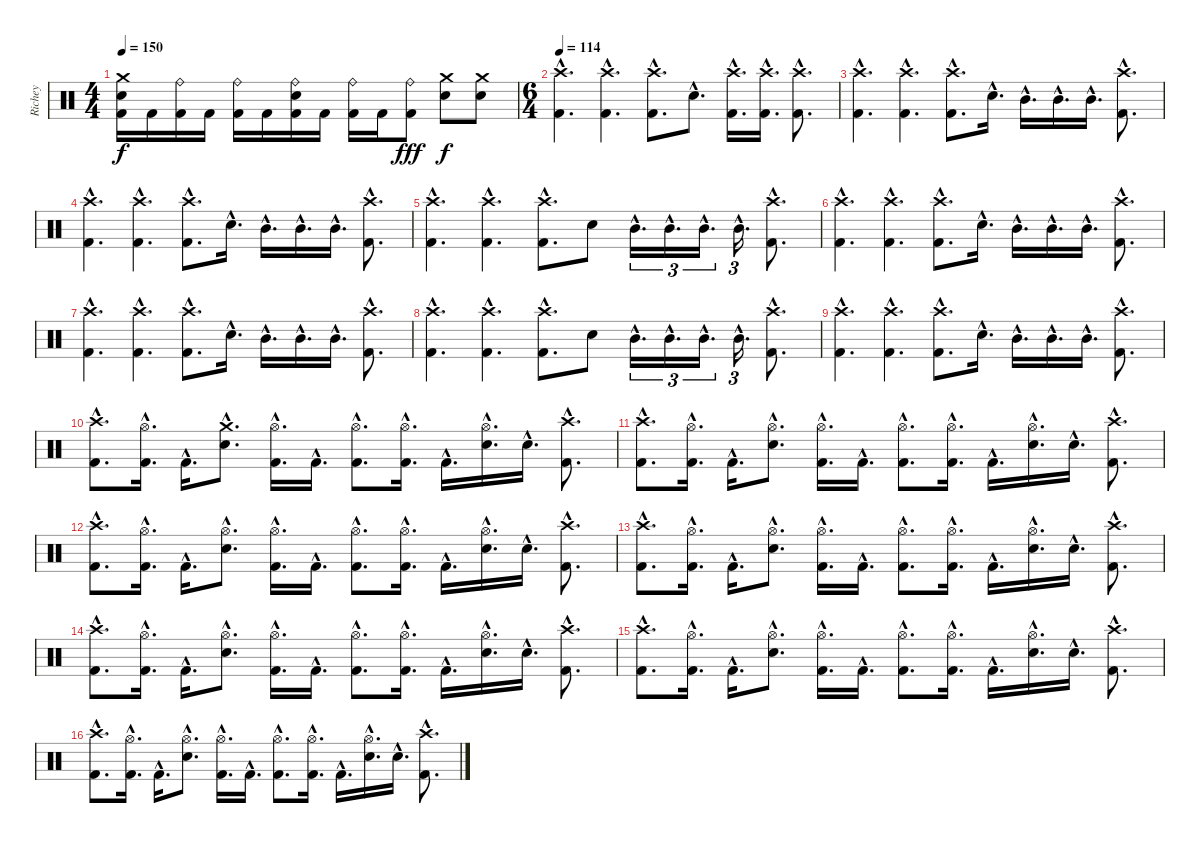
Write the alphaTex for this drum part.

\track ("Richey" "Richey") {instrument percussion}
\staff {score}
\articulation defaults
\ts (4 4)
\tempo 150
\clef neutral
\ks c
("Crash medium (hit)" "Snare (hit) 2" "Kick (hit) 2").16{dy f} "Kick (hit) 2".16 ("Ride (bell)" "Kick (hit) 2").16 "Kick (hit) 2".16 ("Ride (bell)" "Kick (hit) 2").16 "Kick (hit) 2".16 ("Ride (bell)" "Snare (hit) 2" "Kick (hit) 2").16 "Kick (hit) 2".16 ("Ride (bell)" "Kick (hit) 2").16 "Kick (hit) 2".16 ("Ride (bell)" "Kick (hit) 2").8{dy fff} ("Crash medium (hit)" "Snare (hit) 2").8{dy f} ("Crash medium (hit)" "Snare (hit) 2").8 |
\ts (6 4)
\tempo 114
("Crash high (hit)"{hac} "Kick (hit) 2"{hac}).4{d} ("Crash high (hit)"{hac} "Kick (hit) 2"{hac}).4{d} ("Crash high (hit)"{hac} "Kick (hit) 2"{hac}).8{d} "Snare (hit) 2"{hac}.8{d} ("Crash high (hit)"{hac} "Kick (hit) 2"{hac}).16{d} ("Crash high (hit)"{hac} "Kick (hit) 2"{hac}).16{d} ("Crash high (hit)"{hac} "Kick (hit) 2"{hac}).8{d} |
("Crash high (hit)"{hac} "Kick (hit) 2"{hac}).4{d} ("Crash high (hit)"{hac} "Kick (hit) 2"{hac}).4{d} ("Crash high (hit)"{hac} "Kick (hit) 2"{hac}).8{d} "Snare (hit) 2"{hac}.16{d} "Mid Tom (hit)"{hac}.16{d} "Mid Tom (hit)"{hac}.16{d} "Mid Tom (hit)"{hac}.16{d} ("Crash high (hit)"{hac} "Kick (hit) 2"{hac}).8{d} |
("Crash high (hit)"{hac} "Kick (hit) 2"{hac}).4{d} ("Crash high (hit)"{hac} "Kick (hit) 2"{hac}).4{d} ("Crash high (hit)"{hac} "Kick (hit) 2"{hac}).8{d} "Snare (hit) 2"{hac}.16{d} "Mid Tom (hit)"{hac}.16{d} "Mid Tom (hit)"{hac}.16{d} "Mid Tom (hit)"{hac}.16{d} ("Crash high (hit)"{hac} "Kick (hit) 2"{hac}).8{d} |
("Crash high (hit)"{hac} "Kick (hit) 2"{hac}).4{d} ("Crash high (hit)"{hac} "Kick (hit) 2"{hac}).4{d} ("Crash high (hit)"{hac} "Kick (hit) 2"{hac}).8{d} "Snare (hit) 2".8 "Mid Tom (hit)"{hac}.16{d tu (3 2)} "Mid Tom (hit)"{hac}.16{d tu (3 2)} "Mid Tom (hit)"{hac}.16{d tu (3 2)} "Mid Tom (hit)"{hac}.16{d tu (3 2)} ("Crash high (hit)"{hac} "Kick (hit) 2"{hac}).8{d} |
("Crash high (hit)"{hac} "Kick (hit) 2"{hac}).4{d} ("Crash high (hit)"{hac} "Kick (hit) 2"{hac}).4{d} ("Crash high (hit)"{hac} "Kick (hit) 2"{hac}).8{d} "Snare (hit) 2"{hac}.16{d} "Mid Tom (hit)"{hac}.16{d} "Mid Tom (hit)"{hac}.16{d} "Mid Tom (hit)"{hac}.16{d} ("Crash high (hit)"{hac} "Kick (hit) 2"{hac}).8{d} |
("Crash high (hit)"{hac} "Kick (hit) 2"{hac}).4{d} ("Crash high (hit)"{hac} "Kick (hit) 2"{hac}).4{d} ("Crash high (hit)"{hac} "Kick (hit) 2"{hac}).8{d} "Snare (hit) 2"{hac}.16{d} "Mid Tom (hit)"{hac}.16{d} "Mid Tom (hit)"{hac}.16{d} "Mid Tom (hit)"{hac}.16{d} ("Crash high (hit)"{hac} "Kick (hit) 2"{hac}).8{d} |
("Crash high (hit)"{hac} "Kick (hit) 2"{hac}).4{d} ("Crash high (hit)"{hac} "Kick (hit) 2"{hac}).4{d} ("Crash high (hit)"{hac} "Kick (hit) 2"{hac}).8{d} "Snare (hit) 2".8 "Mid Tom (hit)"{hac}.16{d tu (3 2)} "Mid Tom (hit)"{hac}.16{d tu (3 2)} "Mid Tom (hit)"{hac}.16{d tu (3 2)} "Mid Tom (hit)"{hac}.16{d tu (3 2)} ("Crash high (hit)"{hac} "Kick (hit) 2"{hac}).8{d} |
("Crash high (hit)"{hac} "Kick (hit) 2"{hac}).4{d} ("Crash high (hit)"{hac} "Kick (hit) 2"{hac}).4{d} ("Crash high (hit)"{hac} "Kick (hit) 2"{hac}).8{d} "Snare (hit) 2"{hac}.16{d} "Mid Tom (hit)"{hac}.16{d} "Mid Tom (hit)"{hac}.16{d} "Mid Tom (hit)"{hac}.16{d} ("Crash high (hit)"{hac} "Kick (hit) 2"{hac}).8{d} |
("Crash high (hit)"{hac} "Kick (hit) 2"{hac}).8{d} ("Hi-Hat (open)"{hac} "Kick (hit) 2"{hac}).16{d} "Kick (hit) 2"{hac}.16{d} ("Crash medium (hit)"{hac} "Snare (hit) 2"{hac}).8{d} ("Hi-Hat (open)"{hac} "Kick (hit) 2"{hac}).16{d} "Kick (hit) 2"{hac}.16{d} ("Hi-Hat (open)"{hac} "Kick (hit) 2"{hac}).8{d} ("Hi-Hat (open)"{hac} "Kick (hit) 2"{hac}).16{d} "Kick (hit) 2"{hac}.16{d} ("Hi-Hat (open)"{hac} "Snare (hit) 2"{hac}).16{d} "Snare (hit) 2"{hac}.16{d} ("Crash high (hit)"{hac} "Kick (hit) 2"{hac}).8{d} |
("Crash high (hit)"{hac} "Kick (hit) 2"{hac}).8{d} ("Hi-Hat (open)"{hac} "Kick (hit) 2"{hac}).16{d} "Kick (hit) 2"{hac}.16{d} ("Hi-Hat (open)"{hac} "Snare (hit) 2"{hac}).8{d} ("Hi-Hat (open)"{hac} "Kick (hit) 2"{hac}).16{d} "Kick (hit) 2"{hac}.16{d} ("Hi-Hat (open)"{hac} "Kick (hit) 2"{hac}).8{d} ("Hi-Hat (open)"{hac} "Kick (hit) 2"{hac}).16{d} "Kick (hit) 2"{hac}.16{d} ("Hi-Hat (open)"{hac} "Snare (hit) 2"{hac}).16{d} "Snare (hit) 2"{hac}.16{d} ("Crash high (hit)"{hac} "Kick (hit) 2"{hac}).8{d} |
("Crash high (hit)"{hac} "Kick (hit) 2"{hac}).8{d} ("Hi-Hat (open)"{hac} "Kick (hit) 2"{hac}).16{d} "Kick (hit) 2"{hac}.16{d} ("Hi-Hat (open)"{hac} "Snare (hit) 2"{hac}).8{d} ("Hi-Hat (open)"{hac} "Kick (hit) 2"{hac}).16{d} "Kick (hit) 2"{hac}.16{d} ("Hi-Hat (open)"{hac} "Kick (hit) 2"{hac}).8{d} ("Hi-Hat (open)"{hac} "Kick (hit) 2"{hac}).16{d} "Kick (hit) 2"{hac}.16{d} ("Hi-Hat (open)"{hac} "Snare (hit) 2"{hac}).16{d} "Snare (hit) 2"{hac}.16{d} ("Crash high (hit)"{hac} "Kick (hit) 2"{hac}).8{d} |
("Crash high (hit)"{hac} "Kick (hit) 2"{hac}).8{d} ("Hi-Hat (open)"{hac} "Kick (hit) 2"{hac}).16{d} "Kick (hit) 2"{hac}.16{d} ("Hi-Hat (open)"{hac} "Snare (hit) 2"{hac}).8{d} ("Hi-Hat (open)"{hac} "Kick (hit) 2"{hac}).16{d} "Kick (hit) 2"{hac}.16{d} ("Hi-Hat (open)"{hac} "Kick (hit) 2"{hac}).8{d} ("Hi-Hat (open)"{hac} "Kick (hit) 2"{hac}).16{d} "Kick (hit) 2"{hac}.16{d} ("Hi-Hat (open)"{hac} "Snare (hit) 2"{hac}).16{d} "Snare (hit) 2"{hac}.16{d} ("Crash high (hit)"{hac} "Kick (hit) 2"{hac}).8{d} |
("Crash high (hit)"{hac} "Kick (hit) 2"{hac}).8{d volume 12} ("Hi-Hat (open)"{hac} "Kick (hit) 2"{hac}).16{d} "Kick (hit) 2"{hac}.16{d} ("Hi-Hat (open)"{hac} "Snare (hit) 2"{hac}).8{d} ("Hi-Hat (open)"{hac} "Kick (hit) 2"{hac}).16{d} "Kick (hit) 2"{hac}.16{d} ("Hi-Hat (open)"{hac} "Kick (hit) 2"{hac}).8{d} ("Hi-Hat (open)"{hac} "Kick (hit) 2"{hac}).16{d} "Kick (hit) 2"{hac}.16{d} ("Hi-Hat (open)"{hac} "Snare (hit) 2"{hac}).16{d} "Snare (hit) 2"{hac}.16{d} ("Crash high (hit)"{hac} "Kick (hit) 2"{hac}).8{d} |
("Crash high (hit)"{hac} "Kick (hit) 2"{hac}).8{d volume 8} ("Hi-Hat (open)"{hac} "Kick (hit) 2"{hac}).16{d} "Kick (hit) 2"{hac}.16{d} ("Hi-Hat (open)"{hac} "Snare (hit) 2"{hac}).8{d} ("Hi-Hat (open)"{hac} "Kick (hit) 2"{hac}).16{d} "Kick (hit) 2"{hac}.16{d} ("Hi-Hat (open)"{hac} "Kick (hit) 2"{hac}).8{d} ("Hi-Hat (open)"{hac} "Kick (hit) 2"{hac}).16{d} "Kick (hit) 2"{hac}.16{d} ("Hi-Hat (open)"{hac} "Snare (hit) 2"{hac}).16{d} "Snare (hit) 2"{hac}.16{d} ("Crash high (hit)"{hac} "Kick (hit) 2"{hac}).8{d} |
("Crash high (hit)"{hac} "Kick (hit) 2"{hac}).8{d volume 4} ("Hi-Hat (open)"{hac} "Kick (hit) 2"{hac}).16{d} "Kick (hit) 2"{hac}.16{d} ("Hi-Hat (open)"{hac} "Snare (hit) 2"{hac}).8{d} ("Hi-Hat (open)"{hac} "Kick (hit) 2"{hac}).16{d} "Kick (hit) 2"{hac}.16{d} ("Hi-Hat (open)"{hac} "Kick (hit) 2"{hac}).8{d} ("Hi-Hat (open)"{hac} "Kick (hit) 2"{hac}).16{d} "Kick (hit) 2"{hac}.16{d} ("Hi-Hat (open)"{hac} "Snare (hit) 2"{hac}).16{d} "Snare (hit) 2"{hac}.16{d} ("Crash high (hit)"{hac} "Kick (hit) 2"{hac}).8{d}
